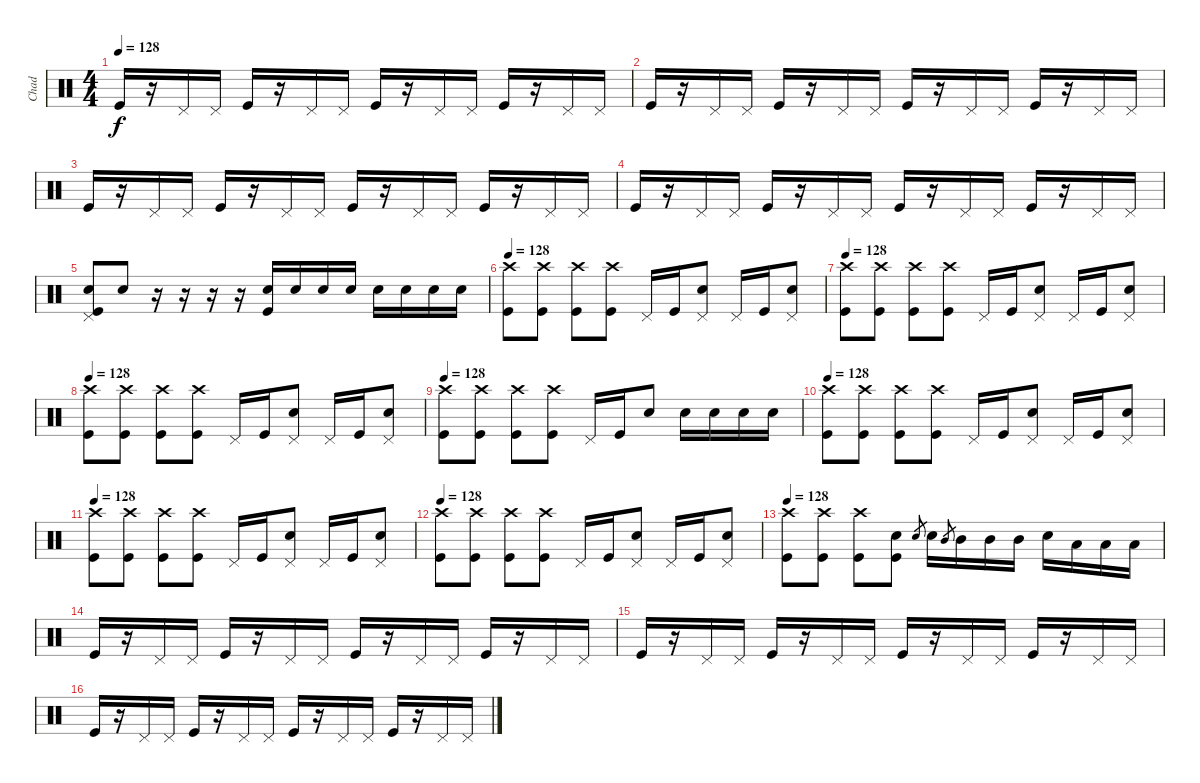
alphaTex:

\track ("Chad" "Chad") {instrument percussion}
\staff {score}
\articulation defaults
\ts (4 4)
\tempo 128
\clef neutral
\ks c "Kick (hit)".16{dy f}
r.16 "Pedal Hi-Hat (hit)".16 "Pedal Hi-Hat (hit)".16 "Kick (hit)".16 r.16 "Pedal Hi-Hat (hit)".16 "Pedal Hi-Hat (hit)".16 "Kick (hit)".16 r.16 "Pedal Hi-Hat (hit)".16 "Pedal Hi-Hat (hit)".16 "Kick (hit)".16 r.16 "Pedal Hi-Hat (hit)".16 "Pedal Hi-Hat (hit)".16 |
"Kick (hit)".16 r.16 "Pedal Hi-Hat (hit)".16 "Pedal Hi-Hat (hit)".16 "Kick (hit)".16 r.16 "Pedal Hi-Hat (hit)".16 "Pedal Hi-Hat (hit)".16 "Kick (hit)".16 r.16 "Pedal Hi-Hat (hit)".16 "Pedal Hi-Hat (hit)".16 "Kick (hit)".16 r.16 "Pedal Hi-Hat (hit)".16 "Pedal Hi-Hat (hit)".16 |
"Kick (hit)".16 r.16 "Pedal Hi-Hat (hit)".16 "Pedal Hi-Hat (hit)".16 "Kick (hit)".16 r.16 "Pedal Hi-Hat (hit)".16 "Pedal Hi-Hat (hit)".16 "Kick (hit)".16 r.16 "Pedal Hi-Hat (hit)".16 "Pedal Hi-Hat (hit)".16 "Kick (hit)".16 r.16 "Pedal Hi-Hat (hit)".16 "Pedal Hi-Hat (hit)".16 |
"Kick (hit)".16 r.16 "Pedal Hi-Hat (hit)".16 "Pedal Hi-Hat (hit)".16 "Kick (hit)".16 r.16 "Pedal Hi-Hat (hit)".16 "Pedal Hi-Hat (hit)".16 "Kick (hit)".16 r.16 "Pedal Hi-Hat (hit)".16 "Pedal Hi-Hat (hit)".16 "Kick (hit)".16 r.16 "Pedal Hi-Hat (hit)".16 "Pedal Hi-Hat (hit)".16 |
("Electric Snare (hit)" "Pedal Hi-Hat (hit)" "Kick (hit)").8 "Electric Snare (hit)".8 r.16 r.16 r.16 r.16 ("Electric Snare (hit)" "Kick (hit)").16 "Electric Snare (hit)".16 "Electric Snare (hit)".16 "Electric Snare (hit)".16 "Electric Snare (hit)".16 "Electric Snare (hit)".16 "Electric Snare (hit)".16 "Electric Snare (hit)".16 |
\tempo 128
("Crash high (hit)" "Kick (hit)").8 ("Crash high (hit)" "Kick (hit)").8 ("Crash high (hit)" "Kick (hit)").8 ("Crash high (hit)" "Kick (hit)").8 "Pedal Hi-Hat (hit)".16 "Kick (hit)".16 ("Electric Snare (hit)" "Pedal Hi-Hat (hit)").8 "Pedal Hi-Hat (hit)".16 "Kick (hit)".16 ("Electric Snare (hit)" "Pedal Hi-Hat (hit)").8 |
\tempo 128
("Crash high (hit)" "Kick (hit)").8 ("Crash high (hit)" "Kick (hit)").8 ("Crash high (hit)" "Kick (hit)").8 ("Crash high (hit)" "Kick (hit)").8 "Pedal Hi-Hat (hit)".16 "Kick (hit)".16 ("Electric Snare (hit)" "Pedal Hi-Hat (hit)").8 "Pedal Hi-Hat (hit)".16 "Kick (hit)".16 ("Electric Snare (hit)" "Pedal Hi-Hat (hit)").8 |
\tempo 128
("Crash high (hit)" "Kick (hit)").8 ("Crash high (hit)" "Kick (hit)").8 ("Crash high (hit)" "Kick (hit)").8 ("Crash high (hit)" "Kick (hit)").8 "Pedal Hi-Hat (hit)".16 "Kick (hit)".16 ("Electric Snare (hit)" "Pedal Hi-Hat (hit)").8 "Pedal Hi-Hat (hit)".16 "Kick (hit)".16 ("Electric Snare (hit)" "Pedal Hi-Hat (hit)").8 |
\tempo 128
("Crash high (hit)" "Kick (hit)").8 ("Crash high (hit)" "Kick (hit)").8 ("Crash high (hit)" "Kick (hit)").8 ("Crash high (hit)" "Kick (hit)").8 "Pedal Hi-Hat (hit)".16 "Kick (hit)".16 "Electric Snare (hit)".8 "Electric Snare (hit)".16 "Electric Snare (hit)".16 "Electric Snare (hit)".16 "Electric Snare (hit)".16 |
\tempo 128
("Crash high (hit)" "Kick (hit)").8 ("Crash high (hit)" "Kick (hit)").8 ("Crash high (hit)" "Kick (hit)").8 ("Crash high (hit)" "Kick (hit)").8 "Pedal Hi-Hat (hit)".16 "Kick (hit)".16 ("Electric Snare (hit)" "Pedal Hi-Hat (hit)").8 "Pedal Hi-Hat (hit)".16 "Kick (hit)".16 ("Electric Snare (hit)" "Pedal Hi-Hat (hit)").8 |
\tempo 128
("Crash high (hit)" "Kick (hit)").8 ("Crash high (hit)" "Kick (hit)").8 ("Crash high (hit)" "Kick (hit)").8 ("Crash high (hit)" "Kick (hit)").8 "Pedal Hi-Hat (hit)".16 "Kick (hit)".16 ("Electric Snare (hit)" "Pedal Hi-Hat (hit)").8 "Pedal Hi-Hat (hit)".16 "Kick (hit)".16 ("Electric Snare (hit)" "Pedal Hi-Hat (hit)").8 |
\tempo 128
("Crash high (hit)" "Kick (hit)").8 ("Crash high (hit)" "Kick (hit)").8 ("Crash high (hit)" "Kick (hit)").8 ("Crash high (hit)" "Kick (hit)").8 "Pedal Hi-Hat (hit)".16 "Kick (hit)".16 ("Electric Snare (hit)" "Pedal Hi-Hat (hit)").8 "Pedal Hi-Hat (hit)".16 "Kick (hit)".16 ("Electric Snare (hit)" "Pedal Hi-Hat (hit)").8 |
\tempo 128
("Crash high (hit)" "Kick (hit)").8 ("Crash high (hit)" "Kick (hit)").8 ("Crash high (hit)" "Kick (hit)").8 ("Electric Snare (hit)" "Kick (hit)").8 "Electric Snare (hit)".8{gr} "Electric Snare (hit)".16 "Mid Tom (hit)".8{gr} "Mid Tom (hit)".16 "Mid Tom (hit)".16 "Mid Tom (hit)".16 "Electric Snare (hit)".16 "Low Tom (hit)".16 "Low Tom (hit)".16 "Low Tom (hit)".16 |
"Kick (hit)".16 r.16 "Pedal Hi-Hat (hit)".16 "Pedal Hi-Hat (hit)".16 "Kick (hit)".16 r.16 "Pedal Hi-Hat (hit)".16 "Pedal Hi-Hat (hit)".16 "Kick (hit)".16 r.16 "Pedal Hi-Hat (hit)".16 "Pedal Hi-Hat (hit)".16 "Kick (hit)".16 r.16 "Pedal Hi-Hat (hit)".16 "Pedal Hi-Hat (hit)".16 |
"Kick (hit)".16 r.16 "Pedal Hi-Hat (hit)".16 "Pedal Hi-Hat (hit)".16 "Kick (hit)".16 r.16 "Pedal Hi-Hat (hit)".16 "Pedal Hi-Hat (hit)".16 "Kick (hit)".16 r.16 "Pedal Hi-Hat (hit)".16 "Pedal Hi-Hat (hit)".16 "Kick (hit)".16 r.16 "Pedal Hi-Hat (hit)".16 "Pedal Hi-Hat (hit)".16 |
"Kick (hit)".16 r.16 "Pedal Hi-Hat (hit)".16 "Pedal Hi-Hat (hit)".16 "Kick (hit)".16 r.16 "Pedal Hi-Hat (hit)".16 "Pedal Hi-Hat (hit)".16 "Kick (hit)".16 r.16 "Pedal Hi-Hat (hit)".16 "Pedal Hi-Hat (hit)".16 "Kick (hit)".16 r.16 "Pedal Hi-Hat (hit)".16 "Pedal Hi-Hat (hit)".16
